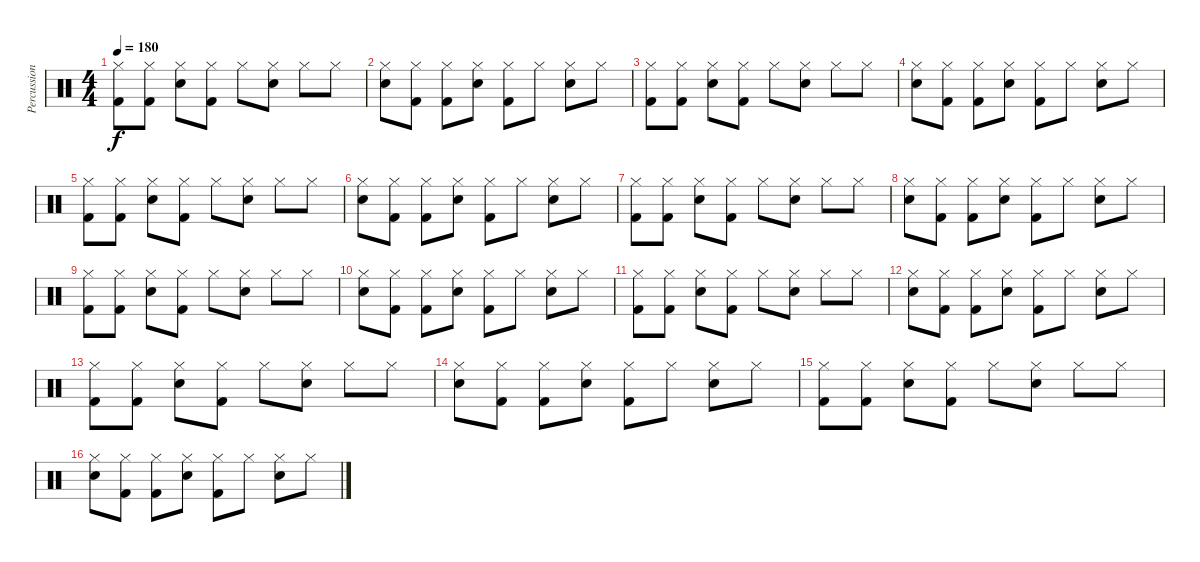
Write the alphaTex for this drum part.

\track ("Percussion" "Percussion") {instrument percussion}
\staff {score}
\articulation defaults
\ts (4 4)
\tempo 180
\clef neutral
\ks c
("Hi-Hat (closed)" "Kick (hit) 2").8{dy f} ("Hi-Hat (closed)" "Kick (hit) 2").8 ("Hi-Hat (closed)" "Electric Snare (hit)").8 ("Hi-Hat (closed)" "Kick (hit) 2").8 "Hi-Hat (closed)".8 ("Hi-Hat (closed)" "Electric Snare (hit)").8 "Hi-Hat (closed)".8 "Hi-Hat (closed)".8 |
("Hi-Hat (closed)" "Electric Snare (hit)").8 ("Hi-Hat (closed)" "Kick (hit) 2").8 ("Hi-Hat (closed)" "Kick (hit) 2").8 ("Hi-Hat (closed)" "Electric Snare (hit)").8 ("Hi-Hat (closed)" "Kick (hit) 2").8 "Hi-Hat (closed)".8 ("Hi-Hat (closed)" "Electric Snare (hit)").8 "Hi-Hat (closed)".8 |
("Hi-Hat (closed)" "Kick (hit) 2").8 ("Hi-Hat (closed)" "Kick (hit) 2").8 ("Hi-Hat (closed)" "Electric Snare (hit)").8 ("Hi-Hat (closed)" "Kick (hit) 2").8 "Hi-Hat (closed)".8 ("Hi-Hat (closed)" "Electric Snare (hit)").8 "Hi-Hat (closed)".8 "Hi-Hat (closed)".8 |
("Hi-Hat (closed)" "Electric Snare (hit)").8 ("Hi-Hat (closed)" "Kick (hit) 2").8 ("Hi-Hat (closed)" "Kick (hit) 2").8 ("Hi-Hat (closed)" "Electric Snare (hit)").8 ("Hi-Hat (closed)" "Kick (hit) 2").8 "Hi-Hat (closed)".8 ("Hi-Hat (closed)" "Electric Snare (hit)").8 "Hi-Hat (closed)".8 |
("Hi-Hat (closed)" "Kick (hit) 2").8 ("Hi-Hat (closed)" "Kick (hit) 2").8 ("Hi-Hat (closed)" "Electric Snare (hit)").8 ("Hi-Hat (closed)" "Kick (hit) 2").8 "Hi-Hat (closed)".8 ("Hi-Hat (closed)" "Electric Snare (hit)").8 "Hi-Hat (closed)".8 "Hi-Hat (closed)".8 |
("Hi-Hat (closed)" "Electric Snare (hit)").8 ("Hi-Hat (closed)" "Kick (hit) 2").8 ("Hi-Hat (closed)" "Kick (hit) 2").8 ("Hi-Hat (closed)" "Electric Snare (hit)").8 ("Hi-Hat (closed)" "Kick (hit) 2").8 "Hi-Hat (closed)".8 ("Hi-Hat (closed)" "Electric Snare (hit)").8 "Hi-Hat (closed)".8 |
("Hi-Hat (closed)" "Kick (hit) 2").8 ("Hi-Hat (closed)" "Kick (hit) 2").8 ("Hi-Hat (closed)" "Electric Snare (hit)").8 ("Hi-Hat (closed)" "Kick (hit) 2").8 "Hi-Hat (closed)".8 ("Hi-Hat (closed)" "Electric Snare (hit)").8 "Hi-Hat (closed)".8 "Hi-Hat (closed)".8 |
("Hi-Hat (closed)" "Electric Snare (hit)").8 ("Hi-Hat (closed)" "Kick (hit) 2").8 ("Hi-Hat (closed)" "Kick (hit) 2").8 ("Hi-Hat (closed)" "Electric Snare (hit)").8 ("Hi-Hat (closed)" "Kick (hit) 2").8 "Hi-Hat (closed)".8 ("Hi-Hat (closed)" "Electric Snare (hit)").8 "Hi-Hat (closed)".8 |
("Hi-Hat (closed)" "Kick (hit) 2").8 ("Hi-Hat (closed)" "Kick (hit) 2").8 ("Hi-Hat (closed)" "Electric Snare (hit)").8 ("Hi-Hat (closed)" "Kick (hit) 2").8 "Hi-Hat (closed)".8 ("Hi-Hat (closed)" "Electric Snare (hit)").8 "Hi-Hat (closed)".8 "Hi-Hat (closed)".8 |
("Hi-Hat (closed)" "Electric Snare (hit)").8 ("Hi-Hat (closed)" "Kick (hit) 2").8 ("Hi-Hat (closed)" "Kick (hit) 2").8 ("Hi-Hat (closed)" "Electric Snare (hit)").8 ("Hi-Hat (closed)" "Kick (hit) 2").8 "Hi-Hat (closed)".8 ("Hi-Hat (closed)" "Electric Snare (hit)").8 "Hi-Hat (closed)".8 |
("Hi-Hat (closed)" "Kick (hit) 2").8 ("Hi-Hat (closed)" "Kick (hit) 2").8 ("Hi-Hat (closed)" "Electric Snare (hit)").8 ("Hi-Hat (closed)" "Kick (hit) 2").8 "Hi-Hat (closed)".8 ("Hi-Hat (closed)" "Electric Snare (hit)").8 "Hi-Hat (closed)".8 "Hi-Hat (closed)".8 |
("Hi-Hat (closed)" "Electric Snare (hit)").8 ("Hi-Hat (closed)" "Kick (hit) 2").8 ("Hi-Hat (closed)" "Kick (hit) 2").8 ("Hi-Hat (closed)" "Electric Snare (hit)").8 ("Hi-Hat (closed)" "Kick (hit) 2").8 "Hi-Hat (closed)".8 ("Hi-Hat (closed)" "Electric Snare (hit)").8 "Hi-Hat (closed)".8 |
("Hi-Hat (closed)" "Kick (hit) 2").8 ("Hi-Hat (closed)" "Kick (hit) 2").8 ("Hi-Hat (closed)" "Electric Snare (hit)").8 ("Hi-Hat (closed)" "Kick (hit) 2").8 "Hi-Hat (closed)".8 ("Hi-Hat (closed)" "Electric Snare (hit)").8 "Hi-Hat (closed)".8 "Hi-Hat (closed)".8 |
("Hi-Hat (closed)" "Electric Snare (hit)").8 ("Hi-Hat (closed)" "Kick (hit) 2").8 ("Hi-Hat (closed)" "Kick (hit) 2").8 ("Hi-Hat (closed)" "Electric Snare (hit)").8 ("Hi-Hat (closed)" "Kick (hit) 2").8 "Hi-Hat (closed)".8 ("Hi-Hat (closed)" "Electric Snare (hit)").8 "Hi-Hat (closed)".8 |
("Hi-Hat (closed)" "Kick (hit) 2").8 ("Hi-Hat (closed)" "Kick (hit) 2").8 ("Hi-Hat (closed)" "Electric Snare (hit)").8 ("Hi-Hat (closed)" "Kick (hit) 2").8 "Hi-Hat (closed)".8 ("Hi-Hat (closed)" "Electric Snare (hit)").8 "Hi-Hat (closed)".8 "Hi-Hat (closed)".8 |
("Hi-Hat (closed)" "Electric Snare (hit)").8 ("Hi-Hat (closed)" "Kick (hit) 2").8 ("Hi-Hat (closed)" "Kick (hit) 2").8 ("Hi-Hat (closed)" "Electric Snare (hit)").8 ("Hi-Hat (closed)" "Kick (hit) 2").8 "Hi-Hat (closed)".8 ("Hi-Hat (closed)" "Electric Snare (hit)").8 "Hi-Hat (closed)".8
